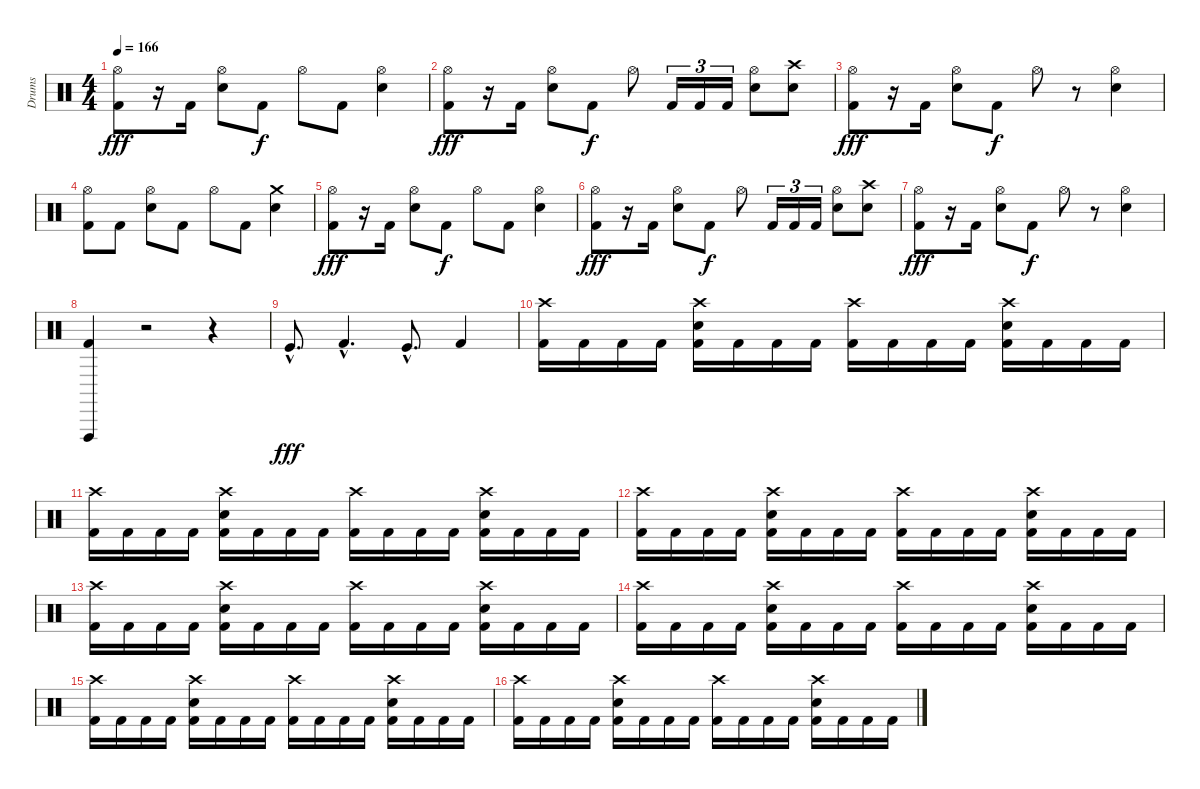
\track ("Drums" "Drums") {instrument percussion}
\staff {score}
\articulation defaults
\ts (4 4)
\tempo 166
\clef neutral
\ks c
("Hi-Hat (open)" "Kick (hit) 2").8{dy fff} r.16 "Kick (hit) 2".16 ("Hi-Hat (open)" "Snare (hit) 2").8 "Kick (hit) 2".8{dy f} "Hi-Hat (open)".8 "Kick (hit) 2".8 ("Hi-Hat (open)" "Snare (hit) 2").4 |
("Hi-Hat (open)" "Kick (hit) 2").8{dy fff} r.16 "Kick (hit) 2".16 ("Hi-Hat (open)" "Snare (hit) 2").8 "Kick (hit) 2".8{dy f} "Hi-Hat (open)".8 "Kick (hit) 2".16{tu (3 2)} "Kick (hit) 2".16{tu (3 2)} "Kick (hit) 2".16{tu (3 2)} ("Hi-Hat (open)" "Snare (hit) 2").8 ("Crash high (hit)" "Snare (hit) 2").8 |
("Hi-Hat (open)" "Kick (hit) 2").8{dy fff} r.16 "Kick (hit) 2".16 ("Hi-Hat (open)" "Snare (hit) 2").8 "Kick (hit) 2".8{dy f} "Hi-Hat (open)".8 r.8 ("Hi-Hat (open)" "Snare (hit) 2").4 |
("Hi-Hat (open)" "Kick (hit) 2").8 "Kick (hit) 2".8 ("Hi-Hat (open)" "Snare (hit) 2").8 "Kick (hit) 2".8 "Hi-Hat (open)".8 "Kick (hit) 2".8 ("Crash medium (hit)" "Snare (hit) 2").4 |
("Hi-Hat (open)" "Kick (hit) 2").8{dy fff} r.16 "Kick (hit) 2".16 ("Hi-Hat (open)" "Snare (hit) 2").8 "Kick (hit) 2".8{dy f} "Hi-Hat (open)".8 "Kick (hit) 2".8 ("Hi-Hat (open)" "Snare (hit) 2").4 |
("Hi-Hat (open)" "Kick (hit) 2").8{dy fff} r.16 "Kick (hit) 2".16 ("Hi-Hat (open)" "Snare (hit) 2").8 "Kick (hit) 2".8{dy f} "Hi-Hat (open)".8 "Kick (hit) 2".16{tu (3 2)} "Kick (hit) 2".16{tu (3 2)} "Kick (hit) 2".16{tu (3 2)} ("Hi-Hat (open)" "Snare (hit) 2").8 ("Crash high (hit)" "Snare (hit) 2").8 |
("Hi-Hat (open)" "Kick (hit) 2").8{dy fff} r.16 "Kick (hit) 2".16 ("Hi-Hat (open)" "Snare (hit) 2").8 "Kick (hit) 2".8{dy f} "Hi-Hat (open)".8 r.8 ("Hi-Hat (open)" "Snare (hit) 2").4 |
("Vibraslap (hit)" "Kick (hit) 2").4 r.2 r.4 |
"Kick (hit)"{hac}.8{d dy fff} "Kick (hit) 2"{hac}.4{d} "Kick (hit)"{hac}.8{d} "Kick (hit) 2".4 |
("Crash high (hit)" "Kick (hit) 2").16 "Kick (hit) 2".16 "Kick (hit) 2".16 "Kick (hit) 2".16 ("Crash high (hit)" "Snare (hit) 2" "Kick (hit) 2").16 "Kick (hit) 2".16 "Kick (hit) 2".16 "Kick (hit) 2".16 ("Crash high (hit)" "Kick (hit) 2").16 "Kick (hit) 2".16 "Kick (hit) 2".16 "Kick (hit) 2".16 ("Crash high (hit)" "Snare (hit) 2" "Kick (hit) 2").16 "Kick (hit) 2".16 "Kick (hit) 2".16 "Kick (hit) 2".16 |
("Crash high (hit)" "Kick (hit) 2").16 "Kick (hit) 2".16 "Kick (hit) 2".16 "Kick (hit) 2".16 ("Crash high (hit)" "Snare (hit) 2" "Kick (hit) 2").16 "Kick (hit) 2".16 "Kick (hit) 2".16 "Kick (hit) 2".16 ("Crash high (hit)" "Kick (hit) 2").16 "Kick (hit) 2".16 "Kick (hit) 2".16 "Kick (hit) 2".16 ("Crash high (hit)" "Snare (hit) 2" "Kick (hit) 2").16 "Kick (hit) 2".16 "Kick (hit) 2".16 "Kick (hit) 2".16 |
("Crash high (hit)" "Kick (hit) 2").16 "Kick (hit) 2".16 "Kick (hit) 2".16 "Kick (hit) 2".16 ("Crash high (hit)" "Snare (hit) 2" "Kick (hit) 2").16 "Kick (hit) 2".16 "Kick (hit) 2".16 "Kick (hit) 2".16 ("Crash high (hit)" "Kick (hit) 2").16 "Kick (hit) 2".16 "Kick (hit) 2".16 "Kick (hit) 2".16 ("Crash high (hit)" "Snare (hit) 2" "Kick (hit) 2").16 "Kick (hit) 2".16 "Kick (hit) 2".16 "Kick (hit) 2".16 |
("Crash high (hit)" "Kick (hit) 2").16 "Kick (hit) 2".16 "Kick (hit) 2".16 "Kick (hit) 2".16 ("Crash high (hit)" "Snare (hit) 2" "Kick (hit) 2").16 "Kick (hit) 2".16 "Kick (hit) 2".16 "Kick (hit) 2".16 ("Crash high (hit)" "Kick (hit) 2").16 "Kick (hit) 2".16 "Kick (hit) 2".16 "Kick (hit) 2".16 ("Crash high (hit)" "Snare (hit) 2" "Kick (hit) 2").16 "Kick (hit) 2".16 "Kick (hit) 2".16 "Kick (hit) 2".16 |
("Crash high (hit)" "Kick (hit) 2").16 "Kick (hit) 2".16 "Kick (hit) 2".16 "Kick (hit) 2".16 ("Crash high (hit)" "Snare (hit) 2" "Kick (hit) 2").16 "Kick (hit) 2".16 "Kick (hit) 2".16 "Kick (hit) 2".16 ("Crash high (hit)" "Kick (hit) 2").16 "Kick (hit) 2".16 "Kick (hit) 2".16 "Kick (hit) 2".16 ("Crash high (hit)" "Snare (hit) 2" "Kick (hit) 2").16 "Kick (hit) 2".16 "Kick (hit) 2".16 "Kick (hit) 2".16 |
("Crash high (hit)" "Kick (hit) 2").16 "Kick (hit) 2".16 "Kick (hit) 2".16 "Kick (hit) 2".16 ("Crash high (hit)" "Snare (hit) 2" "Kick (hit) 2").16 "Kick (hit) 2".16 "Kick (hit) 2".16 "Kick (hit) 2".16 ("Crash high (hit)" "Kick (hit) 2").16 "Kick (hit) 2".16 "Kick (hit) 2".16 "Kick (hit) 2".16 ("Crash high (hit)" "Snare (hit) 2" "Kick (hit) 2").16 "Kick (hit) 2".16 "Kick (hit) 2".16 "Kick (hit) 2".16 |
("Crash high (hit)" "Kick (hit) 2").16 "Kick (hit) 2".16 "Kick (hit) 2".16 "Kick (hit) 2".16 ("Crash high (hit)" "Snare (hit) 2" "Kick (hit) 2").16 "Kick (hit) 2".16 "Kick (hit) 2".16 "Kick (hit) 2".16 ("Crash high (hit)" "Kick (hit) 2").16 "Kick (hit) 2".16 "Kick (hit) 2".16 "Kick (hit) 2".16 ("Crash high (hit)" "Snare (hit) 2" "Kick (hit) 2").16 "Kick (hit) 2".16 "Kick (hit) 2".16 "Kick (hit) 2".16
